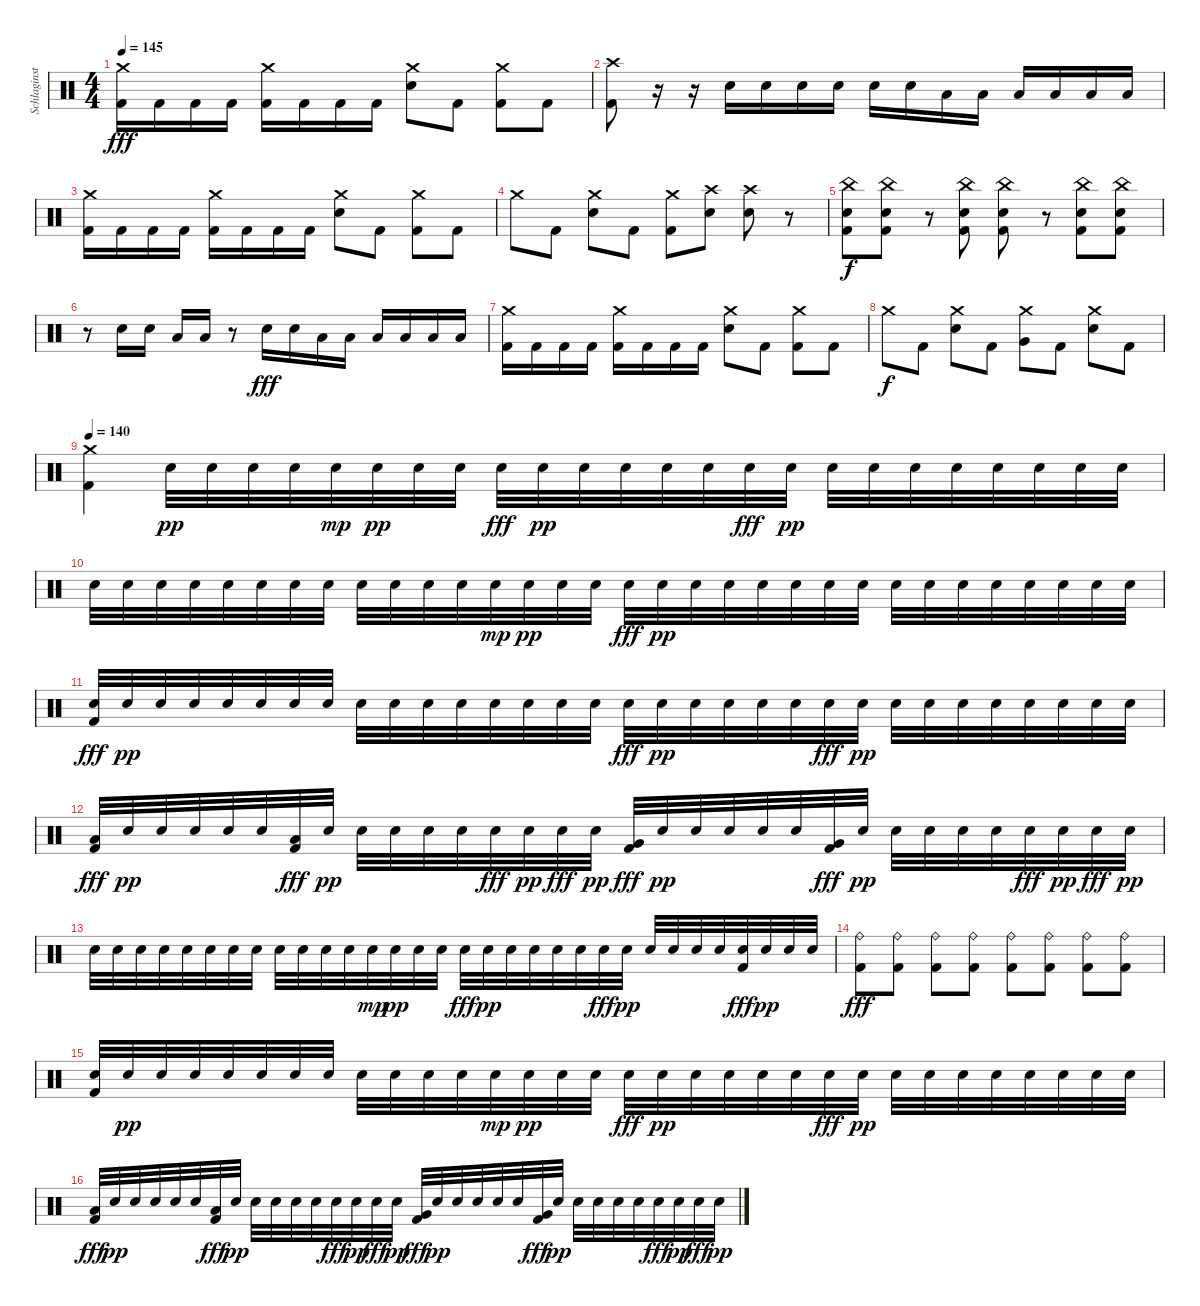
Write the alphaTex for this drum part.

\track ("Schlaginstrumente - Auswahl" "Schlaginst") {instrument percussion}
\staff {score}
\articulation defaults
\ts (4 4)
\tempo 145
\clef neutral
\ks c
("Crash medium (hit)" "Kick (hit) 2").16{dy fff} "Kick (hit) 2".16 "Kick (hit) 2".16 "Kick (hit) 2".16 ("Crash medium (hit)" "Kick (hit) 2").16 "Kick (hit) 2".16 "Kick (hit) 2".16 "Kick (hit) 2".16 ("Crash medium (hit)" "Electric Snare (hit)").8 "Kick (hit) 2".8 ("Crash medium (hit)" "Kick (hit) 2").8 "Kick (hit) 2".8 |
("Crash high (hit)" "Kick (hit) 2").8 r.16 r.16 "Electric Snare (hit)".16 "Electric Snare (hit)".16 "Electric Snare (hit)".16 "Electric Snare (hit)".16 "Electric Snare (hit)".16 "Electric Snare (hit)".16 "Low Tom (hit)".16 "Low Tom (hit)".16 "Low Tom (hit)".16 "Low Tom (hit)".16 "Low Tom (hit)".16 "Low Tom (hit)".16 |
("Crash medium (hit)" "Kick (hit) 2").16 "Kick (hit) 2".16 "Kick (hit) 2".16 "Kick (hit) 2".16 ("Crash medium (hit)" "Kick (hit) 2").16 "Kick (hit) 2".16 "Kick (hit) 2".16 "Kick (hit) 2".16 ("Crash medium (hit)" "Electric Snare (hit)").8 "Kick (hit) 2".8 ("Crash medium (hit)" "Kick (hit) 2").8 "Kick (hit) 2".8 |
"Crash medium (hit)".8 "Kick (hit) 2".8 ("Crash medium (hit)" "Electric Snare (hit)").8 "Kick (hit) 2".8 ("Crash medium (hit)" "Kick (hit) 2").8 ("Crash high (hit)" "Electric Snare (hit)").8 ("Crash high (hit)" "Electric Snare (hit)").8 r.8 |
("China (hit)" "Electric Snare (hit)" "Kick (hit) 2").8{dy f} ("China (hit)" "Electric Snare (hit)" "Kick (hit) 2").8 r.8 ("China (hit)" "Electric Snare (hit)" "Kick (hit) 2").8 ("China (hit)" "Electric Snare (hit)" "Kick (hit) 2").8 r.8 ("China (hit)" "Electric Snare (hit)" "Kick (hit) 2").8 ("China (hit)" "Electric Snare (hit)" "Kick (hit) 2").8 |
r.8 "Electric Snare (hit)".16 "Electric Snare (hit)".16 "Low Tom (hit)".16 "Low Tom (hit)".16 r.8 "Electric Snare (hit)".16{dy fff} "Electric Snare (hit)".16 "Low Tom (hit)".16 "Low Tom (hit)".16 "Low Tom (hit)".16 "Low Tom (hit)".16 "Low Tom (hit)".16 "Low Tom (hit)".16 |
("Crash medium (hit)" "Kick (hit) 2").16 "Kick (hit) 2".16 "Kick (hit) 2".16 "Kick (hit) 2".16 ("Crash medium (hit)" "Kick (hit) 2").16 "Kick (hit) 2".16 "Kick (hit) 2".16 "Kick (hit) 2".16 ("Crash medium (hit)" "Electric Snare (hit)").8 "Kick (hit) 2".8 ("Crash medium (hit)" "Kick (hit) 2").8 "Kick (hit) 2".8 |
"Crash medium (hit)".8{dy f} "Kick (hit) 2".8 ("Crash medium (hit)" "Electric Snare (hit)").8 "Kick (hit) 2".8 ("Crash medium (hit)" "Very Low Tom (hit)").8 "Kick (hit) 2".8 ("Crash medium (hit)" "Electric Snare (hit)").8 "Kick (hit) 2".8 |
\tempo 140
("Crash medium (hit)" "Kick (hit) 2").4 "Electric Snare (hit)".32{dy pp} "Electric Snare (hit)".32 "Electric Snare (hit)".32 "Electric Snare (hit)".32 "Electric Snare (hit)".32{dy mp} "Electric Snare (hit)".32{dy pp} "Electric Snare (hit)".32 "Electric Snare (hit)".32 "Electric Snare (hit)".32{dy fff} "Electric Snare (hit)".32{dy pp} "Electric Snare (hit)".32 "Electric Snare (hit)".32 "Electric Snare (hit)".32 "Electric Snare (hit)".32 "Electric Snare (hit)".32{dy fff} "Electric Snare (hit)".32{dy pp} "Electric Snare (hit)".32 "Electric Snare (hit)".32 "Electric Snare (hit)".32 "Electric Snare (hit)".32 "Electric Snare (hit)".32 "Electric Snare (hit)".32 "Electric Snare (hit)".32 "Electric Snare (hit)".32 |
"Electric Snare (hit)".32 "Electric Snare (hit)".32 "Electric Snare (hit)".32 "Electric Snare (hit)".32 "Electric Snare (hit)".32 "Electric Snare (hit)".32 "Electric Snare (hit)".32 "Electric Snare (hit)".32 "Electric Snare (hit)".32 "Electric Snare (hit)".32 "Electric Snare (hit)".32 "Electric Snare (hit)".32 "Electric Snare (hit)".32{dy mp} "Electric Snare (hit)".32{dy pp} "Electric Snare (hit)".32 "Electric Snare (hit)".32 "Electric Snare (hit)".32{dy fff} "Electric Snare (hit)".32{dy pp} "Electric Snare (hit)".32 "Electric Snare (hit)".32 "Electric Snare (hit)".32 "Electric Snare (hit)".32 "Electric Snare (hit)".32 "Electric Snare (hit)".32 "Electric Snare (hit)".32 "Electric Snare (hit)".32 "Electric Snare (hit)".32 "Electric Snare (hit)".32 "Electric Snare (hit)".32 "Electric Snare (hit)".32 "Electric Snare (hit)".32 "Electric Snare (hit)".32 |
("Electric Snare (hit)" "Kick (hit) 2").32{dy fff} "Electric Snare (hit)".32{dy pp} "Electric Snare (hit)".32 "Electric Snare (hit)".32 "Electric Snare (hit)".32 "Electric Snare (hit)".32 "Electric Snare (hit)".32 "Electric Snare (hit)".32 "Electric Snare (hit)".32 "Electric Snare (hit)".32 "Electric Snare (hit)".32 "Electric Snare (hit)".32 "Electric Snare (hit)".32 "Electric Snare (hit)".32 "Electric Snare (hit)".32 "Electric Snare (hit)".32 "Electric Snare (hit)".32{dy fff} "Electric Snare (hit)".32{dy pp} "Electric Snare (hit)".32 "Electric Snare (hit)".32 "Electric Snare (hit)".32 "Electric Snare (hit)".32 "Electric Snare (hit)".32{dy fff} "Electric Snare (hit)".32{dy pp} "Electric Snare (hit)".32 "Electric Snare (hit)".32 "Electric Snare (hit)".32 "Electric Snare (hit)".32 "Electric Snare (hit)".32 "Electric Snare (hit)".32 "Electric Snare (hit)".32 "Electric Snare (hit)".32 |
("Low Tom (hit)" "Kick (hit) 2").32{dy fff} "Electric Snare (hit)".32{dy pp} "Electric Snare (hit)".32 "Electric Snare (hit)".32 "Electric Snare (hit)".32 "Electric Snare (hit)".32 ("Low Tom (hit)" "Kick (hit) 2").32{dy fff} "Electric Snare (hit)".32{dy pp} "Electric Snare (hit)".32 "Electric Snare (hit)".32 "Electric Snare (hit)".32 "Electric Snare (hit)".32 "Electric Snare (hit)".32{dy fff} "Electric Snare (hit)".32{dy pp} "Electric Snare (hit)".32{dy fff} "Electric Snare (hit)".32{dy pp} ("Very Low Tom (hit)" "Kick (hit) 2").32{dy fff} "Electric Snare (hit)".32{dy pp} "Electric Snare (hit)".32 "Electric Snare (hit)".32 "Electric Snare (hit)".32 "Electric Snare (hit)".32 ("Very Low Tom (hit)" "Kick (hit) 2").32{dy fff} "Electric Snare (hit)".32{dy pp} "Electric Snare (hit)".32 "Electric Snare (hit)".32 "Electric Snare (hit)".32 "Electric Snare (hit)".32 "Electric Snare (hit)".32{dy fff} "Electric Snare (hit)".32{dy pp} "Electric Snare (hit)".32{dy fff} "Electric Snare (hit)".32{dy pp} |
"Electric Snare (hit)".32 "Electric Snare (hit)".32 "Electric Snare (hit)".32 "Electric Snare (hit)".32 "Electric Snare (hit)".32 "Electric Snare (hit)".32 "Electric Snare (hit)".32 "Electric Snare (hit)".32 "Electric Snare (hit)".32 "Electric Snare (hit)".32 "Electric Snare (hit)".32 "Electric Snare (hit)".32 "Electric Snare (hit)".32{dy mp} "Electric Snare (hit)".32{dy pp} "Electric Snare (hit)".32 "Electric Snare (hit)".32 "Electric Snare (hit)".32{dy fff} "Electric Snare (hit)".32{dy pp} "Electric Snare (hit)".32 "Electric Snare (hit)".32 "Electric Snare (hit)".32 "Electric Snare (hit)".32 "Electric Snare (hit)".32{dy fff} "Electric Snare (hit)".32{dy pp} "Electric Snare (hit)".32 "Electric Snare (hit)".32 "Electric Snare (hit)".32 "Electric Snare (hit)".32 ("Electric Snare (hit)" "Kick (hit) 2").32{dy fff} "Electric Snare (hit)".32{dy pp} "Electric Snare (hit)".32 "Electric Snare (hit)".32 |
("Ride (bell)" "Kick (hit) 2").8{dy fff} ("Ride (bell)" "Kick (hit) 2").8 ("Ride (bell)" "Kick (hit) 2").8 ("Ride (bell)" "Kick (hit) 2").8 ("Ride (bell)" "Kick (hit) 2").8 ("Ride (bell)" "Kick (hit) 2").8 ("Ride (bell)" "Kick (hit) 2").8 ("Ride (bell)" "Kick (hit) 2").8 |
("Electric Snare (hit)" "Kick (hit) 2").32 "Electric Snare (hit)".32{dy pp} "Electric Snare (hit)".32 "Electric Snare (hit)".32 "Electric Snare (hit)".32 "Electric Snare (hit)".32 "Electric Snare (hit)".32 "Electric Snare (hit)".32 "Electric Snare (hit)".32 "Electric Snare (hit)".32 "Electric Snare (hit)".32 "Electric Snare (hit)".32 "Electric Snare (hit)".32{dy mp} "Electric Snare (hit)".32{dy pp} "Electric Snare (hit)".32 "Electric Snare (hit)".32 "Electric Snare (hit)".32{dy fff} "Electric Snare (hit)".32{dy pp} "Electric Snare (hit)".32 "Electric Snare (hit)".32 "Electric Snare (hit)".32 "Electric Snare (hit)".32 "Electric Snare (hit)".32{dy fff} "Electric Snare (hit)".32{dy pp} "Electric Snare (hit)".32 "Electric Snare (hit)".32 "Electric Snare (hit)".32 "Electric Snare (hit)".32 "Electric Snare (hit)".32 "Electric Snare (hit)".32 "Electric Snare (hit)".32 "Electric Snare (hit)".32 |
("Low Tom (hit)" "Kick (hit) 2").32{dy fff} "Electric Snare (hit)".32{dy pp} "Electric Snare (hit)".32 "Electric Snare (hit)".32 "Electric Snare (hit)".32 "Electric Snare (hit)".32 ("Low Tom (hit)" "Kick (hit) 2").32{dy fff} "Electric Snare (hit)".32{dy pp} "Electric Snare (hit)".32 "Electric Snare (hit)".32 "Electric Snare (hit)".32 "Electric Snare (hit)".32 "Electric Snare (hit)".32{dy fff} "Electric Snare (hit)".32{dy pp} "Electric Snare (hit)".32{dy fff} "Electric Snare (hit)".32{dy pp} ("Very Low Tom (hit)" "Kick (hit) 2").32{dy fff} "Electric Snare (hit)".32{dy pp} "Electric Snare (hit)".32 "Electric Snare (hit)".32 "Electric Snare (hit)".32 "Electric Snare (hit)".32 ("Very Low Tom (hit)" "Kick (hit) 2").32{dy fff} "Electric Snare (hit)".32{dy pp} "Electric Snare (hit)".32 "Electric Snare (hit)".32 "Electric Snare (hit)".32 "Electric Snare (hit)".32 "Electric Snare (hit)".32{dy fff} "Electric Snare (hit)".32{dy pp} "Electric Snare (hit)".32{dy fff} "Electric Snare (hit)".32{dy pp}
